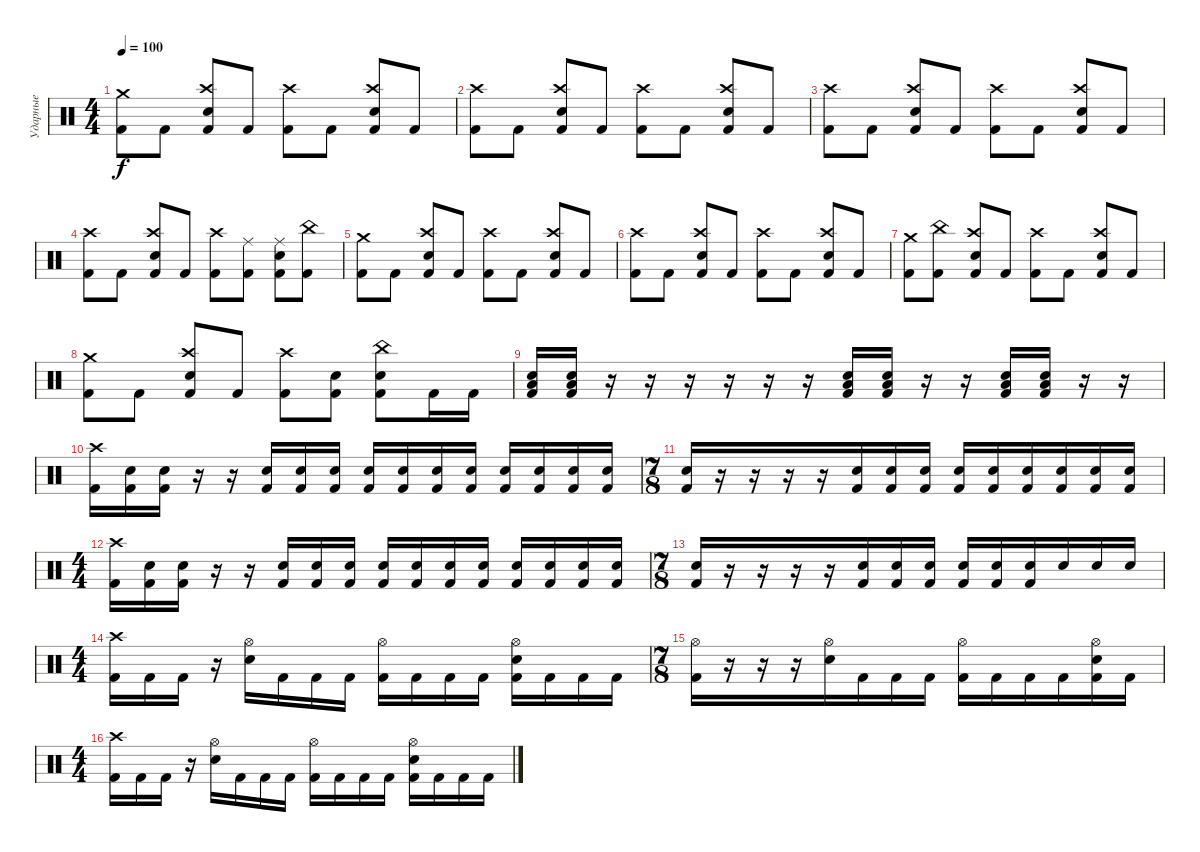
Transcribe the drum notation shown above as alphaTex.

\track ("Ударные" "Ударные") {instrument percussion}
\staff {score}
\articulation defaults
\ts (4 4)
\tempo 100
\clef neutral
\ks c
("Crash medium (hit)" "Kick (hit) 2").8{dy f} "Kick (hit) 2".8 ("Crash high (hit)" "Electric Snare (hit)" "Kick (hit) 2").8 "Kick (hit) 2".8 ("Crash high (hit)" "Kick (hit) 2").8 "Kick (hit) 2".8 ("Crash high (hit)" "Electric Snare (hit)" "Kick (hit) 2").8 "Kick (hit) 2".8 |
("Crash high (hit)" "Kick (hit) 2").8 "Kick (hit) 2".8 ("Crash high (hit)" "Electric Snare (hit)" "Kick (hit) 2").8 "Kick (hit) 2".8 ("Crash high (hit)" "Kick (hit) 2").8 "Kick (hit) 2".8 ("Crash high (hit)" "Electric Snare (hit)" "Kick (hit) 2").8 "Kick (hit) 2".8 |
("Crash high (hit)" "Kick (hit) 2").8 "Kick (hit) 2".8 ("Crash high (hit)" "Electric Snare (hit)" "Kick (hit) 2").8 "Kick (hit) 2".8 ("Crash high (hit)" "Kick (hit) 2").8 "Kick (hit) 2".8 ("Crash high (hit)" "Electric Snare (hit)" "Kick (hit) 2").8 "Kick (hit) 2".8 |
("Crash high (hit)" "Kick (hit) 2").8 "Kick (hit) 2".8 ("Crash high (hit)" "Electric Snare (hit)" "Kick (hit) 2").8 "Kick (hit) 2".8 ("Crash high (hit)" "Kick (hit) 2").8 ("Ride (middle)" "Kick (hit) 2").8 ("Ride (middle)" "Electric Snare (hit)" "Kick (hit) 2").8 ("China (hit)" "Kick (hit) 2").8 |
("Crash medium (hit)" "Kick (hit) 2").8 "Kick (hit) 2".8 ("Crash high (hit)" "Electric Snare (hit)" "Kick (hit) 2").8 "Kick (hit) 2".8 ("Crash high (hit)" "Kick (hit) 2").8 "Kick (hit) 2".8 ("Crash high (hit)" "Electric Snare (hit)" "Kick (hit) 2").8 "Kick (hit) 2".8 |
("Crash high (hit)" "Kick (hit) 2").8 "Kick (hit) 2".8 ("Crash high (hit)" "Electric Snare (hit)" "Kick (hit) 2").8 "Kick (hit) 2".8 ("Crash high (hit)" "Kick (hit) 2").8 "Kick (hit) 2".8 ("Crash high (hit)" "Electric Snare (hit)" "Kick (hit) 2").8 "Kick (hit) 2".8 |
("Crash medium (hit)" "Kick (hit) 2").8 ("China (hit)" "Kick (hit) 2").8 ("Crash high (hit)" "Electric Snare (hit)" "Kick (hit) 2").8 "Kick (hit) 2".8 ("Crash high (hit)" "Kick (hit) 2").8 "Kick (hit) 2".8 ("Crash high (hit)" "Electric Snare (hit)" "Kick (hit) 2").8 "Kick (hit) 2".8 |
("Crash medium (hit)" "Kick (hit) 2").8 "Kick (hit) 2".8 ("Crash high (hit)" "Electric Snare (hit)" "Kick (hit) 2").8 "Kick (hit) 2".8 ("Crash high (hit)" "Kick (hit) 2").8 ("Electric Snare (hit)" "Kick (hit) 2").8 ("China (hit)" "Electric Snare (hit)" "Kick (hit) 2").8 "Kick (hit) 2".16 "Kick (hit) 2".16 |
("Low Tom (hit)" "Electric Snare (hit)" "Kick (hit) 2").16 ("Low Tom (hit)" "Electric Snare (hit)" "Kick (hit) 2").16 r.16 r.16 r.16 r.16 r.16 r.16 ("Low Tom (hit)" "Electric Snare (hit)" "Kick (hit) 2").16 ("Low Tom (hit)" "Electric Snare (hit)" "Kick (hit) 2").16 r.16 r.16 ("Low Tom (hit)" "Electric Snare (hit)" "Kick (hit) 2").16 ("Low Tom (hit)" "Electric Snare (hit)" "Kick (hit) 2").16 r.16 r.16 |
("Crash high (hit)" "Kick (hit) 2").16 ("Electric Snare (hit)" "Kick (hit) 2").16 ("Electric Snare (hit)" "Kick (hit) 2").16 r.16 r.16 ("Electric Snare (hit)" "Kick (hit) 2").16 ("Electric Snare (hit)" "Kick (hit) 2").16 ("Electric Snare (hit)" "Kick (hit) 2").16 ("Electric Snare (hit)" "Kick (hit) 2").16 ("Electric Snare (hit)" "Kick (hit) 2").16 ("Electric Snare (hit)" "Kick (hit) 2").16 ("Electric Snare (hit)" "Kick (hit) 2").16 ("Electric Snare (hit)" "Kick (hit) 2").16 ("Electric Snare (hit)" "Kick (hit) 2").16 ("Electric Snare (hit)" "Kick (hit) 2").16 ("Electric Snare (hit)" "Kick (hit) 2").16 |
\ts (7 8)
("Electric Snare (hit)" "Kick (hit) 2").16 r.16 r.16 r.16 r.16 ("Electric Snare (hit)" "Kick (hit) 2").16 ("Electric Snare (hit)" "Kick (hit) 2").16 ("Electric Snare (hit)" "Kick (hit) 2").16 ("Electric Snare (hit)" "Kick (hit) 2").16 ("Electric Snare (hit)" "Kick (hit) 2").16 ("Electric Snare (hit)" "Kick (hit) 2").16 ("Electric Snare (hit)" "Kick (hit) 2").16 ("Electric Snare (hit)" "Kick (hit) 2").16 ("Electric Snare (hit)" "Kick (hit) 2").16 |
\ts (4 4)
("Crash high (hit)" "Kick (hit) 2").16 ("Electric Snare (hit)" "Kick (hit) 2").16 ("Electric Snare (hit)" "Kick (hit) 2").16 r.16 r.16 ("Electric Snare (hit)" "Kick (hit) 2").16 ("Electric Snare (hit)" "Kick (hit) 2").16 ("Electric Snare (hit)" "Kick (hit) 2").16 ("Electric Snare (hit)" "Kick (hit) 2").16 ("Electric Snare (hit)" "Kick (hit) 2").16 ("Electric Snare (hit)" "Kick (hit) 2").16 ("Electric Snare (hit)" "Kick (hit) 2").16 ("Electric Snare (hit)" "Kick (hit) 2").16 ("Electric Snare (hit)" "Kick (hit) 2").16 ("Electric Snare (hit)" "Kick (hit) 2").16 ("Electric Snare (hit)" "Kick (hit) 2").16 |
\ts (7 8)
("Electric Snare (hit)" "Kick (hit) 2").16 r.16 r.16 r.16 r.16 ("Electric Snare (hit)" "Kick (hit) 2").16 ("Electric Snare (hit)" "Kick (hit) 2").16 ("Electric Snare (hit)" "Kick (hit) 2").16 ("Electric Snare (hit)" "Kick (hit) 2").16 ("Electric Snare (hit)" "Kick (hit) 2").16 ("Electric Snare (hit)" "Kick (hit) 2").16 "Electric Snare (hit)".16 "Electric Snare (hit)".16 "Electric Snare (hit)".16 |
\ts (4 4)
("Crash high (hit)" "Kick (hit) 2").16 "Kick (hit) 2".16 "Kick (hit) 2".16 r.16 ("Hi-Hat (open)" "Electric Snare (hit)").16 "Kick (hit) 2".16 "Kick (hit) 2".16 "Kick (hit) 2".16 ("Hi-Hat (open)" "Kick (hit) 2").16 "Kick (hit) 2".16 "Kick (hit) 2".16 "Kick (hit) 2".16 ("Hi-Hat (open)" "Electric Snare (hit)" "Kick (hit) 2").16 "Kick (hit) 2".16 "Kick (hit) 2".16 "Kick (hit) 2".16 |
\ts (7 8)
("Hi-Hat (open)" "Kick (hit) 2").16 r.16 r.16 r.16 ("Hi-Hat (open)" "Electric Snare (hit)").16 "Kick (hit) 2".16 "Kick (hit) 2".16 "Kick (hit) 2".16 ("Hi-Hat (open)" "Kick (hit) 2").16 "Kick (hit) 2".16 "Kick (hit) 2".16 "Kick (hit) 2".16 ("Hi-Hat (open)" "Electric Snare (hit)" "Kick (hit) 2").16 "Kick (hit) 2".16 |
\ts (4 4)
("Crash high (hit)" "Kick (hit) 2").16 "Kick (hit) 2".16 "Kick (hit) 2".16 r.16 ("Hi-Hat (open)" "Electric Snare (hit)").16 "Kick (hit) 2".16 "Kick (hit) 2".16 "Kick (hit) 2".16 ("Hi-Hat (open)" "Kick (hit) 2").16 "Kick (hit) 2".16 "Kick (hit) 2".16 "Kick (hit) 2".16 ("Hi-Hat (open)" "Electric Snare (hit)" "Kick (hit) 2").16 "Kick (hit) 2".16 "Kick (hit) 2".16 "Kick (hit) 2".16
